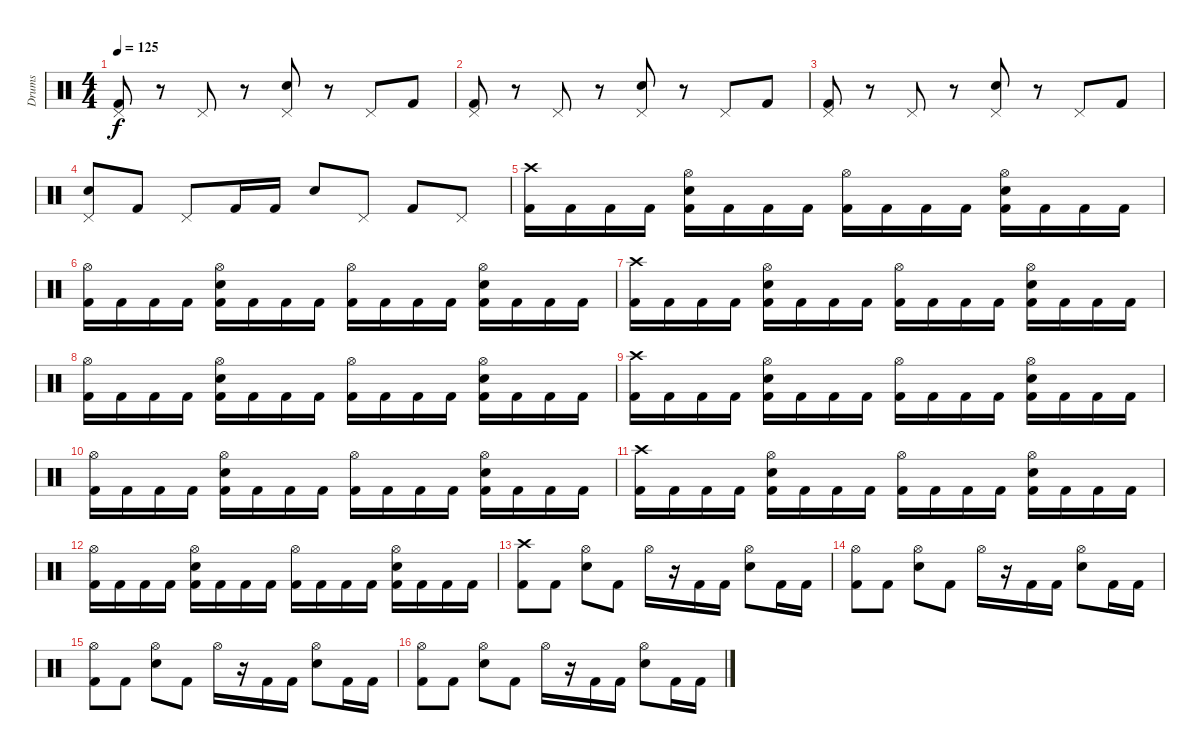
\track ("Drums" "Drums") {instrument percussion}
\staff {score}
\articulation defaults
\ts (4 4)
\tempo 125
\clef neutral
\ks c
("Kick (hit) 2" "Pedal Hi-Hat (hit)").8{dy f} r.8 "Pedal Hi-Hat (hit)".8 r.8 ("Electric Snare (hit)" "Pedal Hi-Hat (hit)").8 r.8 "Pedal Hi-Hat (hit)".8 "Kick (hit) 2".8 |
("Kick (hit) 2" "Pedal Hi-Hat (hit)").8 r.8 "Pedal Hi-Hat (hit)".8 r.8 ("Electric Snare (hit)" "Pedal Hi-Hat (hit)").8 r.8 "Pedal Hi-Hat (hit)".8 "Kick (hit) 2".8 |
("Kick (hit) 2" "Pedal Hi-Hat (hit)").8 r.8 "Pedal Hi-Hat (hit)".8 r.8 ("Electric Snare (hit)" "Pedal Hi-Hat (hit)").8 r.8 "Pedal Hi-Hat (hit)".8 "Kick (hit) 2".8 |
("Electric Snare (hit)" "Pedal Hi-Hat (hit)").8 "Kick (hit) 2".8 "Pedal Hi-Hat (hit)".8 "Kick (hit) 2".16 "Kick (hit) 2".16 "Electric Snare (hit)".8 "Pedal Hi-Hat (hit)".8 "Kick (hit) 2".8 "Pedal Hi-Hat (hit)".8 |
("Kick (hit) 2" "Crash high (hit)").16 "Kick (hit) 2".16 "Kick (hit) 2".16 "Kick (hit) 2".16 ("Kick (hit) 2" "Electric Snare (hit)" "Hi-Hat (open)").16 "Kick (hit) 2".16 "Kick (hit) 2".16 "Kick (hit) 2".16 ("Kick (hit) 2" "Hi-Hat (open)").16 "Kick (hit) 2".16 "Kick (hit) 2".16 "Kick (hit) 2".16 ("Kick (hit) 2" "Electric Snare (hit)" "Hi-Hat (open)").16 "Kick (hit) 2".16 "Kick (hit) 2".16 "Kick (hit) 2".16 |
("Kick (hit) 2" "Hi-Hat (open)").16 "Kick (hit) 2".16 "Kick (hit) 2".16 "Kick (hit) 2".16 ("Kick (hit) 2" "Electric Snare (hit)" "Hi-Hat (open)").16 "Kick (hit) 2".16 "Kick (hit) 2".16 "Kick (hit) 2".16 ("Kick (hit) 2" "Hi-Hat (open)").16 "Kick (hit) 2".16 "Kick (hit) 2".16 "Kick (hit) 2".16 ("Kick (hit) 2" "Electric Snare (hit)" "Hi-Hat (open)").16 "Kick (hit) 2".16 "Kick (hit) 2".16 "Kick (hit) 2".16 |
("Kick (hit) 2" "Crash high (hit)").16 "Kick (hit) 2".16 "Kick (hit) 2".16 "Kick (hit) 2".16 ("Kick (hit) 2" "Electric Snare (hit)" "Hi-Hat (open)").16 "Kick (hit) 2".16 "Kick (hit) 2".16 "Kick (hit) 2".16 ("Kick (hit) 2" "Hi-Hat (open)").16 "Kick (hit) 2".16 "Kick (hit) 2".16 "Kick (hit) 2".16 ("Kick (hit) 2" "Electric Snare (hit)" "Hi-Hat (open)").16 "Kick (hit) 2".16 "Kick (hit) 2".16 "Kick (hit) 2".16 |
("Kick (hit) 2" "Hi-Hat (open)").16 "Kick (hit) 2".16 "Kick (hit) 2".16 "Kick (hit) 2".16 ("Kick (hit) 2" "Electric Snare (hit)" "Hi-Hat (open)").16 "Kick (hit) 2".16 "Kick (hit) 2".16 "Kick (hit) 2".16 ("Kick (hit) 2" "Hi-Hat (open)").16 "Kick (hit) 2".16 "Kick (hit) 2".16 "Kick (hit) 2".16 ("Kick (hit) 2" "Electric Snare (hit)" "Hi-Hat (open)").16 "Kick (hit) 2".16 "Kick (hit) 2".16 "Kick (hit) 2".16 |
("Kick (hit) 2" "Crash high (hit)").16 "Kick (hit) 2".16 "Kick (hit) 2".16 "Kick (hit) 2".16 ("Kick (hit) 2" "Electric Snare (hit)" "Hi-Hat (open)").16 "Kick (hit) 2".16 "Kick (hit) 2".16 "Kick (hit) 2".16 ("Kick (hit) 2" "Hi-Hat (open)").16 "Kick (hit) 2".16 "Kick (hit) 2".16 "Kick (hit) 2".16 ("Kick (hit) 2" "Electric Snare (hit)" "Hi-Hat (open)").16 "Kick (hit) 2".16 "Kick (hit) 2".16 "Kick (hit) 2".16 |
("Kick (hit) 2" "Hi-Hat (open)").16 "Kick (hit) 2".16 "Kick (hit) 2".16 "Kick (hit) 2".16 ("Kick (hit) 2" "Electric Snare (hit)" "Hi-Hat (open)").16 "Kick (hit) 2".16 "Kick (hit) 2".16 "Kick (hit) 2".16 ("Kick (hit) 2" "Hi-Hat (open)").16 "Kick (hit) 2".16 "Kick (hit) 2".16 "Kick (hit) 2".16 ("Kick (hit) 2" "Electric Snare (hit)" "Hi-Hat (open)").16 "Kick (hit) 2".16 "Kick (hit) 2".16 "Kick (hit) 2".16 |
("Kick (hit) 2" "Crash high (hit)").16 "Kick (hit) 2".16 "Kick (hit) 2".16 "Kick (hit) 2".16 ("Kick (hit) 2" "Electric Snare (hit)" "Hi-Hat (open)").16 "Kick (hit) 2".16 "Kick (hit) 2".16 "Kick (hit) 2".16 ("Kick (hit) 2" "Hi-Hat (open)").16 "Kick (hit) 2".16 "Kick (hit) 2".16 "Kick (hit) 2".16 ("Kick (hit) 2" "Electric Snare (hit)" "Hi-Hat (open)").16 "Kick (hit) 2".16 "Kick (hit) 2".16 "Kick (hit) 2".16 |
("Kick (hit) 2" "Hi-Hat (open)").16 "Kick (hit) 2".16 "Kick (hit) 2".16 "Kick (hit) 2".16 ("Kick (hit) 2" "Electric Snare (hit)" "Hi-Hat (open)").16 "Kick (hit) 2".16 "Kick (hit) 2".16 "Kick (hit) 2".16 ("Kick (hit) 2" "Hi-Hat (open)").16 "Kick (hit) 2".16 "Kick (hit) 2".16 "Kick (hit) 2".16 ("Kick (hit) 2" "Electric Snare (hit)" "Hi-Hat (open)").16 "Kick (hit) 2".16 "Kick (hit) 2".16 "Kick (hit) 2".16 |
("Kick (hit) 2" "Crash high (hit)").8 "Kick (hit) 2".8 ("Electric Snare (hit)" "Hi-Hat (open)").8 "Kick (hit) 2".8 "Hi-Hat (open)".16 r.16 "Kick (hit) 2".16 "Kick (hit) 2".16 ("Electric Snare (hit)" "Hi-Hat (open)").8 "Kick (hit) 2".16 "Kick (hit) 2".16 |
("Kick (hit) 2" "Hi-Hat (open)").8 "Kick (hit) 2".8 ("Electric Snare (hit)" "Hi-Hat (open)").8 "Kick (hit) 2".8 "Hi-Hat (open)".16 r.16 "Kick (hit) 2".16 "Kick (hit) 2".16 ("Electric Snare (hit)" "Hi-Hat (open)").8 "Kick (hit) 2".16 "Kick (hit) 2".16 |
("Kick (hit) 2" "Hi-Hat (open)").8 "Kick (hit) 2".8 ("Electric Snare (hit)" "Hi-Hat (open)").8 "Kick (hit) 2".8 "Hi-Hat (open)".16 r.16 "Kick (hit) 2".16 "Kick (hit) 2".16 ("Electric Snare (hit)" "Hi-Hat (open)").8 "Kick (hit) 2".16 "Kick (hit) 2".16 |
("Kick (hit) 2" "Hi-Hat (open)").8 "Kick (hit) 2".8 ("Electric Snare (hit)" "Hi-Hat (open)").8 "Kick (hit) 2".8 "Hi-Hat (open)".16 r.16 "Kick (hit) 2".16 "Kick (hit) 2".16 ("Electric Snare (hit)" "Hi-Hat (open)").8 "Kick (hit) 2".16 "Kick (hit) 2".16
